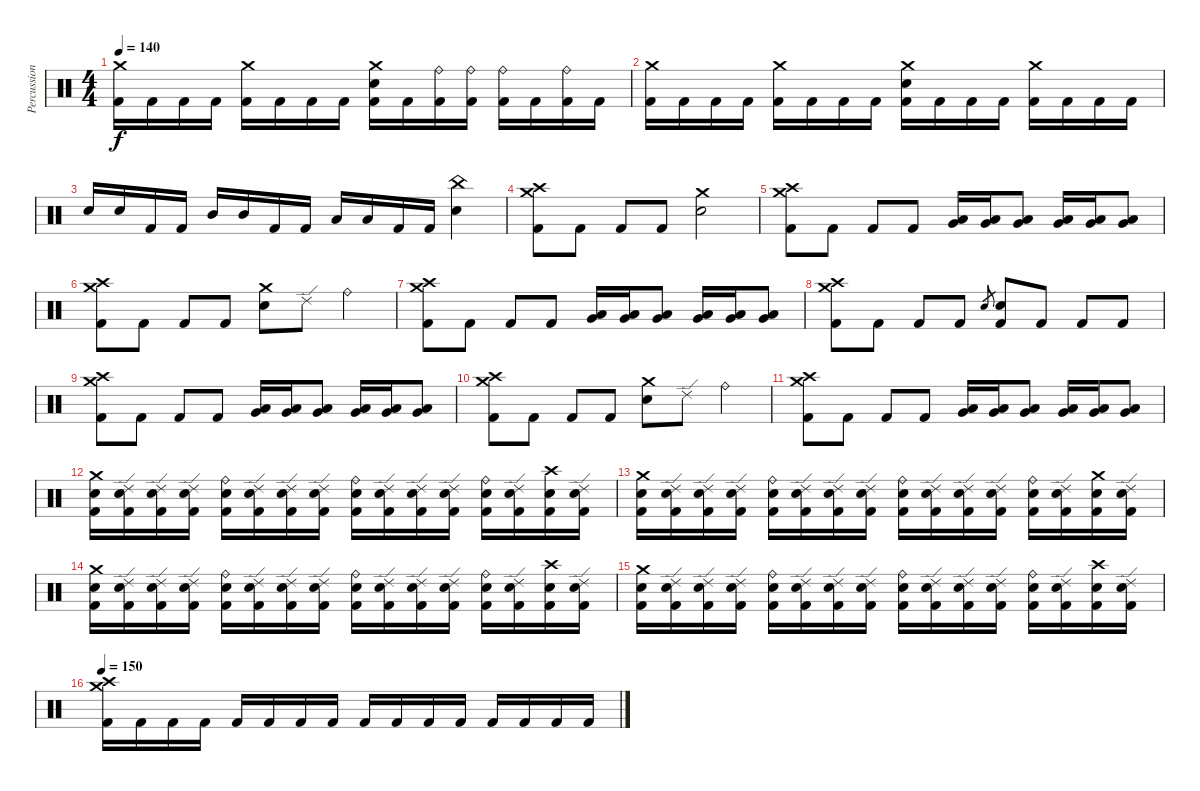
\track ("Percussion" "Percussion") {instrument percussion}
\staff {score}
\articulation defaults
\ts (4 4)
\tempo 140
\clef neutral
\ks c
("Crash medium (hit)" "Kick (hit) 2").16{dy f} "Kick (hit) 2".16 "Kick (hit) 2".16 "Kick (hit) 2".16 ("Crash medium (hit)" "Kick (hit) 2").16 "Kick (hit) 2".16 "Kick (hit) 2".16 "Kick (hit) 2".16 ("Crash medium (hit)" "Electric Snare (hit)" "Kick (hit) 2").16 "Kick (hit) 2".16 ("Ride (bell)" "Kick (hit) 2").16 ("Ride (bell)" "Kick (hit) 2").16 ("Ride (bell)" "Kick (hit) 2").16 "Kick (hit) 2".16 ("Ride (bell)" "Kick (hit) 2").16 "Kick (hit) 2".16 |
("Crash medium (hit)" "Kick (hit) 2").16 "Kick (hit) 2".16 "Kick (hit) 2".16 "Kick (hit) 2".16 ("Crash medium (hit)" "Kick (hit) 2").16 "Kick (hit) 2".16 "Kick (hit) 2".16 "Kick (hit) 2".16 ("Crash medium (hit)" "Electric Snare (hit)" "Kick (hit) 2").16 "Kick (hit) 2".16 "Kick (hit) 2".16 "Kick (hit) 2".16 ("Crash medium (hit)" "Kick (hit) 2").16 "Kick (hit) 2".16 "Kick (hit) 2".16 "Kick (hit) 2".16 |
"Electric Snare (hit)".16 "Electric Snare (hit)".16 "Kick (hit) 2".16 "Kick (hit) 2".16 "Mid Tom (hit)".16 "Mid Tom (hit)".16 "Kick (hit) 2".16 "Kick (hit) 2".16 "Low Tom (hit)".16 "Low Tom (hit)".16 "Kick (hit) 2".16 "Kick (hit) 2".16 ("China (hit)" "Electric Snare (hit)").4 |
("Crash medium (hit)" "Crash high (hit)" "Kick (hit) 2").8 "Kick (hit) 2".8 "Kick (hit) 2".8 "Kick (hit) 2".8 ("Crash medium (hit)" "Electric Snare (hit)").2 |
("Crash medium (hit)" "Crash high (hit)" "Kick (hit) 2").8 "Kick (hit) 2".8 "Kick (hit) 2".8 "Kick (hit) 2".8 ("Very Low Tom (hit)" "Low Floor Tom (hit)").16 ("Very Low Tom (hit)" "Low Floor Tom (hit)").16 ("Very Low Tom (hit)" "Low Floor Tom (hit)").8 ("Very Low Tom (hit)" "Low Floor Tom (hit)").16 ("Very Low Tom (hit)" "Low Floor Tom (hit)").16 ("Very Low Tom (hit)" "Low Floor Tom (hit)").8 |
("Crash medium (hit)" "Crash high (hit)" "Kick (hit) 2").8 "Kick (hit) 2".8 "Kick (hit) 2".8 "Kick (hit) 2".8 ("Crash medium (hit)" "Electric Snare (hit)").8 "Ride (edge) 2".8 "Ride (bell)".4 |
("Crash medium (hit)" "Crash high (hit)" "Kick (hit) 2").8 "Kick (hit) 2".8 "Kick (hit) 2".8 "Kick (hit) 2".8 ("Very Low Tom (hit)" "Low Floor Tom (hit)").16 ("Very Low Tom (hit)" "Low Floor Tom (hit)").16 ("Very Low Tom (hit)" "Low Floor Tom (hit)").8 ("Very Low Tom (hit)" "Low Floor Tom (hit)").16 ("Very Low Tom (hit)" "Low Floor Tom (hit)").16 ("Very Low Tom (hit)" "Low Floor Tom (hit)").8 |
("Crash high (hit)" "Crash medium (hit)" "Kick (hit) 2").8 "Kick (hit) 2".8 "Kick (hit) 2".8 "Kick (hit) 2".8 "Electric Snare (hit)".8{gr} ("Electric Snare (hit)" "Kick (hit) 2").8 "Kick (hit) 2".8 "Kick (hit) 2".8 "Kick (hit) 2".8 |
("Crash medium (hit)" "Crash high (hit)" "Kick (hit) 2").8 "Kick (hit) 2".8 "Kick (hit) 2".8 "Kick (hit) 2".8 ("Very Low Tom (hit)" "Low Floor Tom (hit)").16 ("Very Low Tom (hit)" "Low Floor Tom (hit)").16 ("Very Low Tom (hit)" "Low Floor Tom (hit)").8 ("Very Low Tom (hit)" "Low Floor Tom (hit)").16 ("Very Low Tom (hit)" "Low Floor Tom (hit)").16 ("Very Low Tom (hit)" "Low Floor Tom (hit)").8 |
("Crash medium (hit)" "Crash high (hit)" "Kick (hit) 2").8 "Kick (hit) 2".8 "Kick (hit) 2".8 "Kick (hit) 2".8 ("Crash medium (hit)" "Electric Snare (hit)").8 "Ride (edge) 2".8 "Ride (bell)".4 |
("Crash medium (hit)" "Crash high (hit)" "Kick (hit) 2").8 "Kick (hit) 2".8 "Kick (hit) 2".8 "Kick (hit) 2".8 ("Very Low Tom (hit)" "Low Floor Tom (hit)").16 ("Very Low Tom (hit)" "Low Floor Tom (hit)").16 ("Very Low Tom (hit)" "Low Floor Tom (hit)").8 ("Very Low Tom (hit)" "Low Floor Tom (hit)").16 ("Very Low Tom (hit)" "Low Floor Tom (hit)").16 ("Very Low Tom (hit)" "Low Floor Tom (hit)").8 |
("Crash medium (hit)" "Electric Snare (hit)" "Kick (hit) 2").16 ("Ride (edge) 2" "Electric Snare (hit)" "Kick (hit) 2").16 ("Ride (edge) 2" "Electric Snare (hit)" "Kick (hit) 2").16 ("Ride (edge) 2" "Electric Snare (hit)" "Kick (hit) 2").16 ("Ride (bell)" "Electric Snare (hit)" "Kick (hit) 2").16 ("Ride (edge) 2" "Electric Snare (hit)" "Kick (hit) 2").16 ("Ride (edge) 2" "Electric Snare (hit)" "Kick (hit) 2").16 ("Ride (edge) 2" "Electric Snare (hit)" "Kick (hit) 2").16 ("Ride (bell)" "Electric Snare (hit)" "Kick (hit) 2").16 ("Ride (edge) 2" "Electric Snare (hit)" "Kick (hit) 2").16 ("Ride (edge) 2" "Electric Snare (hit)" "Kick (hit) 2").16 ("Ride (edge) 2" "Electric Snare (hit)" "Kick (hit) 2").16 ("Ride (bell)" "Electric Snare (hit)" "Kick (hit) 2").16 ("Ride (edge) 2" "Electric Snare (hit)" "Kick (hit) 2").16 ("Crash high (hit)" "Electric Snare (hit)" "Kick (hit) 2").16 ("Ride (edge) 2" "Electric Snare (hit)" "Kick (hit) 2").16 |
("Crash medium (hit)" "Electric Snare (hit)" "Kick (hit) 2").16 ("Ride (edge) 2" "Electric Snare (hit)" "Kick (hit) 2").16 ("Ride (edge) 2" "Electric Snare (hit)" "Kick (hit) 2").16 ("Ride (edge) 2" "Electric Snare (hit)" "Kick (hit) 2").16 ("Ride (bell)" "Electric Snare (hit)" "Kick (hit) 2").16 ("Ride (edge) 2" "Electric Snare (hit)" "Kick (hit) 2").16 ("Ride (edge) 2" "Electric Snare (hit)" "Kick (hit) 2").16 ("Ride (edge) 2" "Electric Snare (hit)" "Kick (hit) 2").16 ("Ride (bell)" "Electric Snare (hit)" "Kick (hit) 2").16 ("Ride (edge) 2" "Electric Snare (hit)" "Kick (hit) 2").16 ("Ride (edge) 2" "Electric Snare (hit)" "Kick (hit) 2").16 ("Ride (edge) 2" "Electric Snare (hit)" "Kick (hit) 2").16 ("Ride (bell)" "Electric Snare (hit)" "Kick (hit) 2").16 ("Ride (edge) 2" "Electric Snare (hit)" "Kick (hit) 2").16 ("Crash medium (hit)" "Electric Snare (hit)" "Kick (hit) 2").16 ("Ride (edge) 2" "Electric Snare (hit)" "Kick (hit) 2").16 |
("Crash medium (hit)" "Electric Snare (hit)" "Kick (hit) 2").16 ("Ride (edge) 2" "Electric Snare (hit)" "Kick (hit) 2").16 ("Ride (edge) 2" "Electric Snare (hit)" "Kick (hit) 2").16 ("Ride (edge) 2" "Electric Snare (hit)" "Kick (hit) 2").16 ("Ride (bell)" "Electric Snare (hit)" "Kick (hit) 2").16 ("Ride (edge) 2" "Electric Snare (hit)" "Kick (hit) 2").16 ("Ride (edge) 2" "Electric Snare (hit)" "Kick (hit) 2").16 ("Ride (edge) 2" "Electric Snare (hit)" "Kick (hit) 2").16 ("Ride (bell)" "Electric Snare (hit)" "Kick (hit) 2").16 ("Ride (edge) 2" "Electric Snare (hit)" "Kick (hit) 2").16 ("Ride (edge) 2" "Electric Snare (hit)" "Kick (hit) 2").16 ("Ride (edge) 2" "Electric Snare (hit)" "Kick (hit) 2").16 ("Ride (bell)" "Electric Snare (hit)" "Kick (hit) 2").16 ("Ride (edge) 2" "Electric Snare (hit)" "Kick (hit) 2").16 ("Crash high (hit)" "Electric Snare (hit)" "Kick (hit) 2").16 ("Ride (edge) 2" "Electric Snare (hit)" "Kick (hit) 2").16 |
("Crash medium (hit)" "Electric Snare (hit)" "Kick (hit) 2").16 ("Ride (edge) 2" "Electric Snare (hit)" "Kick (hit) 2").16 ("Ride (edge) 2" "Electric Snare (hit)" "Kick (hit) 2").16 ("Ride (edge) 2" "Electric Snare (hit)" "Kick (hit) 2").16 ("Ride (bell)" "Electric Snare (hit)" "Kick (hit) 2").16 ("Ride (edge) 2" "Electric Snare (hit)" "Kick (hit) 2").16 ("Ride (edge) 2" "Electric Snare (hit)" "Kick (hit) 2").16 ("Ride (edge) 2" "Electric Snare (hit)" "Kick (hit) 2").16 ("Ride (bell)" "Electric Snare (hit)" "Kick (hit) 2").16 ("Ride (edge) 2" "Electric Snare (hit)" "Kick (hit) 2").16 ("Ride (edge) 2" "Electric Snare (hit)" "Kick (hit) 2").16 ("Ride (edge) 2" "Electric Snare (hit)" "Kick (hit) 2").16 ("Ride (bell)" "Electric Snare (hit)" "Kick (hit) 2").16 ("Ride (edge) 2" "Electric Snare (hit)" "Kick (hit) 2").16 ("Crash high (hit)" "Electric Snare (hit)" "Kick (hit) 2").16 ("Ride (edge) 2" "Electric Snare (hit)" "Kick (hit) 2").16 |
\tempo 150
("Crash medium (hit)" "Crash high (hit)" "Kick (hit) 2").16 "Kick (hit) 2".16 "Kick (hit) 2".16 "Kick (hit) 2".16 "Kick (hit) 2".16 "Kick (hit) 2".16 "Kick (hit) 2".16 "Kick (hit) 2".16 "Kick (hit) 2".16 "Kick (hit) 2".16 "Kick (hit) 2".16 "Kick (hit) 2".16 "Kick (hit) 2".16 "Kick (hit) 2".16 "Kick (hit) 2".16 "Kick (hit) 2".16
